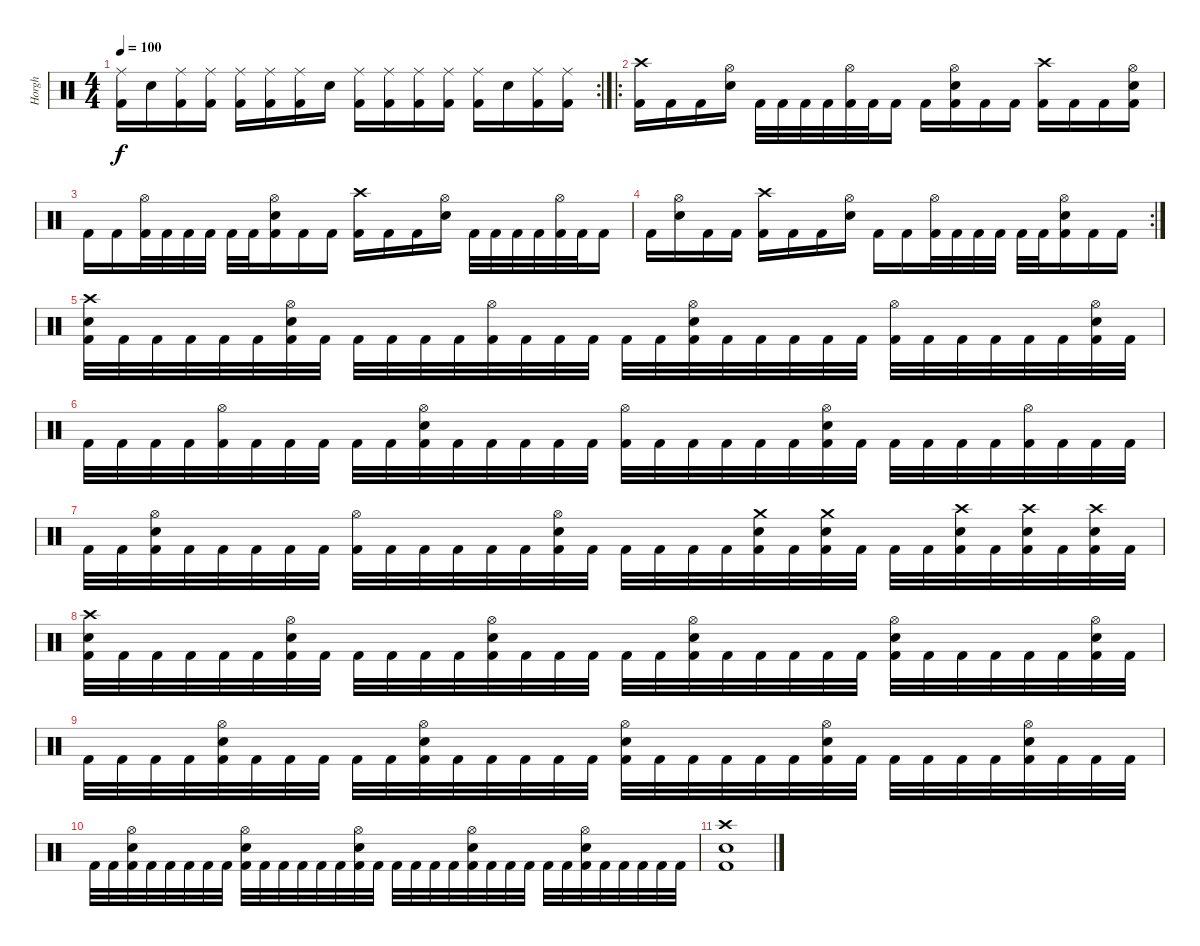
\track ("Horgh" "Horgh") {instrument percussion}
\staff {score}
\articulation defaults
\rc 2
\ts (4 4)
\tempo 100
\clef neutral
\ks c
("Ride (middle)" "Kick (hit) 2").16{dy f} "Snare (hit) 2".16 ("Ride (middle)" "Kick (hit) 2").16 ("Ride (middle)" "Kick (hit) 2").16 ("Ride (middle)" "Kick (hit) 2").16 ("Ride (middle)" "Kick (hit) 2").16 ("Ride (middle)" "Kick (hit) 2").16 "Snare (hit) 2".16 ("Ride (middle)" "Kick (hit) 2").16 ("Ride (middle)" "Kick (hit) 2").16 ("Ride (middle)" "Kick (hit) 2").16 ("Ride (middle)" "Kick (hit) 2").16 ("Ride (middle)" "Kick (hit) 2").16 "Snare (hit) 2".16 ("Ride (middle)" "Kick (hit) 2").16 ("Ride (middle)" "Kick (hit) 2").16 |
\ro
("Crash high (hit)" "Kick (hit) 2").16 "Kick (hit) 2".16 "Kick (hit) 2".16 ("Hi-Hat (open)" "Snare (hit) 2").16 "Kick (hit) 2".32 "Kick (hit) 2".32 "Kick (hit) 2".32 "Kick (hit) 2".32 ("Hi-Hat (open)" "Kick (hit) 2").32 "Kick (hit) 2".32 "Kick (hit) 2".16 "Kick (hit) 2".16 ("Hi-Hat (open)" "Snare (hit) 2" "Kick (hit) 2").16 "Kick (hit) 2".16 "Kick (hit) 2".16 ("Crash high (hit)" "Kick (hit) 2").16 "Kick (hit) 2".16 "Kick (hit) 2".16 ("Hi-Hat (open)" "Snare (hit) 2" "Kick (hit) 2").16 |
"Kick (hit) 2".16 "Kick (hit) 2".16 ("Hi-Hat (open)" "Kick (hit) 2").32 "Kick (hit) 2".32 "Kick (hit) 2".32 "Kick (hit) 2".32 "Kick (hit) 2".32 "Kick (hit) 2".32 ("Hi-Hat (open)" "Snare (hit) 2" "Kick (hit) 2").16 "Kick (hit) 2".16 "Kick (hit) 2".16 ("Crash high (hit)" "Kick (hit) 2").16 "Kick (hit) 2".16 "Kick (hit) 2".16 ("Hi-Hat (open)" "Snare (hit) 2").16 "Kick (hit) 2".32 "Kick (hit) 2".32 "Kick (hit) 2".32 "Kick (hit) 2".32 ("Hi-Hat (open)" "Kick (hit) 2").32 "Kick (hit) 2".32 "Kick (hit) 2".16 |
\rc 2 "Kick (hit) 2".16
("Hi-Hat (open)" "Snare (hit) 2").16 "Kick (hit) 2".16 "Kick (hit) 2".16 ("Crash high (hit)" "Kick (hit) 2").16 "Kick (hit) 2".16 "Kick (hit) 2".16 ("Hi-Hat (open)" "Snare (hit) 2").16 "Kick (hit) 2".16 "Kick (hit) 2".16 ("Hi-Hat (open)" "Kick (hit) 2").32 "Kick (hit) 2".32 "Kick (hit) 2".32 "Kick (hit) 2".32 "Kick (hit) 2".32 "Kick (hit) 2".32 ("Hi-Hat (open)" "Snare (hit) 2" "Kick (hit) 2").16 "Kick (hit) 2".16 "Kick (hit) 2".16 |
("Crash high (hit)" "Snare (hit) 2" "Kick (hit) 2").32 "Kick (hit) 2".32 "Kick (hit) 2".32 "Kick (hit) 2".32 "Kick (hit) 2".32 "Kick (hit) 2".32 ("Hi-Hat (open)" "Snare (hit) 2" "Kick (hit) 2").32 "Kick (hit) 2".32 "Kick (hit) 2".32 "Kick (hit) 2".32 "Kick (hit) 2".32 "Kick (hit) 2".32 ("Hi-Hat (open)" "Kick (hit) 2").32 "Kick (hit) 2".32 "Kick (hit) 2".32 "Kick (hit) 2".32 "Kick (hit) 2".32 "Kick (hit) 2".32 ("Hi-Hat (open)" "Snare (hit) 2" "Kick (hit) 2").32 "Kick (hit) 2".32 "Kick (hit) 2".32 "Kick (hit) 2".32 "Kick (hit) 2".32 "Kick (hit) 2".32 ("Hi-Hat (open)" "Kick (hit) 2").32 "Kick (hit) 2".32 "Kick (hit) 2".32 "Kick (hit) 2".32 "Kick (hit) 2".32 "Kick (hit) 2".32 ("Hi-Hat (open)" "Snare (hit) 2" "Kick (hit) 2").32 "Kick (hit) 2".32 |
"Kick (hit) 2".32 "Kick (hit) 2".32 "Kick (hit) 2".32 "Kick (hit) 2".32 ("Hi-Hat (open)" "Kick (hit) 2").32 "Kick (hit) 2".32 "Kick (hit) 2".32 "Kick (hit) 2".32 "Kick (hit) 2".32 "Kick (hit) 2".32 ("Hi-Hat (open)" "Snare (hit) 2" "Kick (hit) 2").32 "Kick (hit) 2".32 "Kick (hit) 2".32 "Kick (hit) 2".32 "Kick (hit) 2".32 "Kick (hit) 2".32 ("Hi-Hat (open)" "Kick (hit) 2").32 "Kick (hit) 2".32 "Kick (hit) 2".32 "Kick (hit) 2".32 "Kick (hit) 2".32 "Kick (hit) 2".32 ("Hi-Hat (open)" "Snare (hit) 2" "Kick (hit) 2").32 "Kick (hit) 2".32 "Kick (hit) 2".32 "Kick (hit) 2".32 "Kick (hit) 2".32 "Kick (hit) 2".32 ("Hi-Hat (open)" "Kick (hit) 2").32 "Kick (hit) 2".32 "Kick (hit) 2".32 "Kick (hit) 2".32 |
"Kick (hit) 2".32 "Kick (hit) 2".32 ("Hi-Hat (open)" "Snare (hit) 2" "Kick (hit) 2").32 "Kick (hit) 2".32 "Kick (hit) 2".32 "Kick (hit) 2".32 "Kick (hit) 2".32 "Kick (hit) 2".32 ("Hi-Hat (open)" "Kick (hit) 2").32 "Kick (hit) 2".32 "Kick (hit) 2".32 "Kick (hit) 2".32 "Kick (hit) 2".32 "Kick (hit) 2".32 ("Hi-Hat (open)" "Snare (hit) 2" "Kick (hit) 2").32 "Kick (hit) 2".32 "Kick (hit) 2".32 "Kick (hit) 2".32 "Kick (hit) 2".32 "Kick (hit) 2".32 ("Crash medium (hit)" "Snare (hit) 2" "Kick (hit) 2").32 "Kick (hit) 2".32 ("Crash medium (hit)" "Snare (hit) 2" "Kick (hit) 2").32 "Kick (hit) 2".32 "Kick (hit) 2".32 "Kick (hit) 2".32 ("Crash high (hit)" "Snare (hit) 2" "Kick (hit) 2").32 "Kick (hit) 2".32 ("Crash high (hit)" "Snare (hit) 2" "Kick (hit) 2").32 "Kick (hit) 2".32 ("Crash high (hit)" "Snare (hit) 2" "Kick (hit) 2").32 "Kick (hit) 2".32 |
("Crash high (hit)" "Snare (hit) 2" "Kick (hit) 2").32 "Kick (hit) 2".32 "Kick (hit) 2".32 "Kick (hit) 2".32 "Kick (hit) 2".32 "Kick (hit) 2".32 ("Hi-Hat (open)" "Snare (hit) 2" "Kick (hit) 2").32 "Kick (hit) 2".32 "Kick (hit) 2".32 "Kick (hit) 2".32 "Kick (hit) 2".32 "Kick (hit) 2".32 ("Hi-Hat (open)" "Snare (hit) 2" "Kick (hit) 2").32 "Kick (hit) 2".32 "Kick (hit) 2".32 "Kick (hit) 2".32 "Kick (hit) 2".32 "Kick (hit) 2".32 ("Hi-Hat (open)" "Snare (hit) 2" "Kick (hit) 2").32 "Kick (hit) 2".32 "Kick (hit) 2".32 "Kick (hit) 2".32 "Kick (hit) 2".32 "Kick (hit) 2".32 ("Hi-Hat (open)" "Snare (hit) 2" "Kick (hit) 2").32 "Kick (hit) 2".32 "Kick (hit) 2".32 "Kick (hit) 2".32 "Kick (hit) 2".32 "Kick (hit) 2".32 ("Hi-Hat (open)" "Snare (hit) 2" "Kick (hit) 2").32 "Kick (hit) 2".32 |
"Kick (hit) 2".32 "Kick (hit) 2".32 "Kick (hit) 2".32 "Kick (hit) 2".32 ("Hi-Hat (open)" "Snare (hit) 2" "Kick (hit) 2").32 "Kick (hit) 2".32 "Kick (hit) 2".32 "Kick (hit) 2".32 "Kick (hit) 2".32 "Kick (hit) 2".32 ("Hi-Hat (open)" "Snare (hit) 2" "Kick (hit) 2").32 "Kick (hit) 2".32 "Kick (hit) 2".32 "Kick (hit) 2".32 "Kick (hit) 2".32 "Kick (hit) 2".32 ("Hi-Hat (open)" "Snare (hit) 2" "Kick (hit) 2").32 "Kick (hit) 2".32 "Kick (hit) 2".32 "Kick (hit) 2".32 "Kick (hit) 2".32 "Kick (hit) 2".32 ("Snare (hit) 2" "Hi-Hat (open)" "Kick (hit) 2").32 "Kick (hit) 2".32 "Kick (hit) 2".32 "Kick (hit) 2".32 "Kick (hit) 2".32 "Kick (hit) 2".32 ("Hi-Hat (open)" "Snare (hit) 2" "Kick (hit) 2").32 "Kick (hit) 2".32 "Kick (hit) 2".32 "Kick (hit) 2".32 |
"Kick (hit) 2".32 "Kick (hit) 2".32 ("Hi-Hat (open)" "Snare (hit) 2" "Kick (hit) 2").32 "Kick (hit) 2".32 "Kick (hit) 2".32 "Kick (hit) 2".32 "Kick (hit) 2".32 "Kick (hit) 2".32 ("Hi-Hat (open)" "Snare (hit) 2" "Kick (hit) 2").32 "Kick (hit) 2".32 "Kick (hit) 2".32 "Kick (hit) 2".32 "Kick (hit) 2".32 "Kick (hit) 2".32 ("Hi-Hat (open)" "Snare (hit) 2" "Kick (hit) 2").32 "Kick (hit) 2".32 "Kick (hit) 2".32 "Kick (hit) 2".32 "Kick (hit) 2".32 "Kick (hit) 2".32 ("Hi-Hat (open)" "Snare (hit) 2" "Kick (hit) 2").32 "Kick (hit) 2".32 "Kick (hit) 2".32 "Kick (hit) 2".32 "Kick (hit) 2".32 "Kick (hit) 2".32 ("Hi-Hat (open)" "Snare (hit) 2" "Kick (hit) 2").32 "Kick (hit) 2".32 "Kick (hit) 2".32 "Kick (hit) 2".32 "Kick (hit) 2".32 "Kick (hit) 2".32 |
("Crash high (hit)" "Snare (hit) 2" "Kick (hit) 2").1
